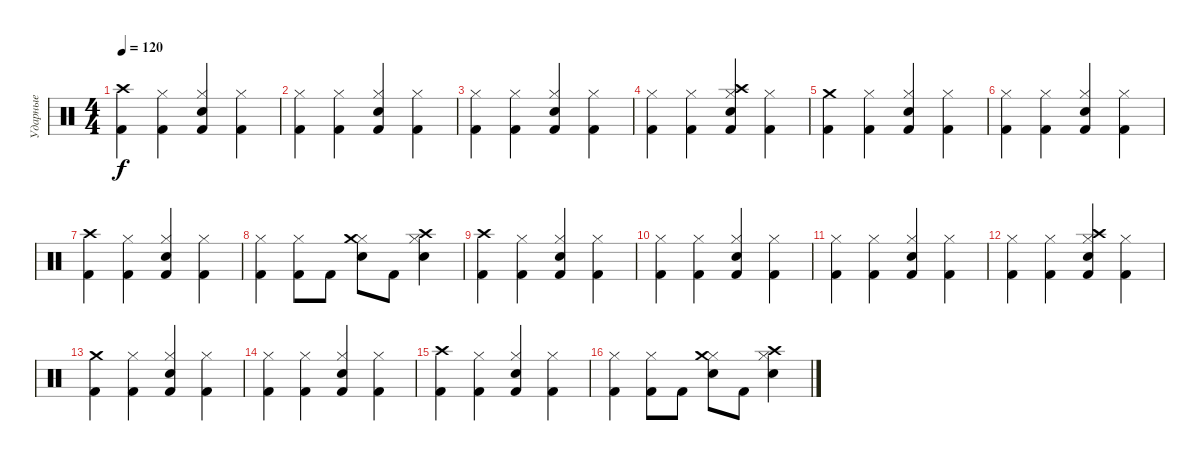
\track ("Ударные" "Ударные") {instrument percussion}
\staff {score}
\articulation defaults
\ts (4 4)
\tempo 120
\clef neutral
\ks c
("Kick (hit) 2" "Crash high (hit)").4{dy f} ("Kick (hit) 2" "Hi-Hat (closed)").4 ("Electric Snare (hit)" "Hi-Hat (closed)" "Kick (hit) 2").4 ("Kick (hit) 2" "Hi-Hat (closed)").4 |
("Kick (hit) 2" "Hi-Hat (closed)").4 ("Kick (hit) 2" "Hi-Hat (closed)").4 ("Electric Snare (hit)" "Hi-Hat (closed)" "Kick (hit) 2").4 ("Kick (hit) 2" "Hi-Hat (closed)").4 |
("Kick (hit) 2" "Hi-Hat (closed)").4 ("Kick (hit) 2" "Hi-Hat (closed)").4 ("Electric Snare (hit)" "Hi-Hat (closed)" "Kick (hit) 2").4 ("Kick (hit) 2" "Hi-Hat (closed)").4 |
("Kick (hit) 2" "Hi-Hat (closed)").4 ("Kick (hit) 2" "Hi-Hat (closed)").4 ("Electric Snare (hit)" "Hi-Hat (closed)" "Crash high (hit)" "Kick (hit) 2").4 ("Kick (hit) 2" "Hi-Hat (closed)").4 |
("Kick (hit) 2" "Crash medium (hit)").4 ("Kick (hit) 2" "Hi-Hat (closed)").4 ("Electric Snare (hit)" "Hi-Hat (closed)" "Kick (hit) 2").4 ("Kick (hit) 2" "Hi-Hat (closed)").4 |
("Kick (hit) 2" "Hi-Hat (closed)").4 ("Kick (hit) 2" "Hi-Hat (closed)").4 ("Electric Snare (hit)" "Hi-Hat (closed)" "Kick (hit) 2").4 ("Kick (hit) 2" "Hi-Hat (closed)").4 |
("Kick (hit) 2" "Crash high (hit)").4 ("Kick (hit) 2" "Hi-Hat (closed)").4 ("Electric Snare (hit)" "Hi-Hat (closed)" "Kick (hit) 2").4 ("Kick (hit) 2" "Hi-Hat (closed)").4 |
("Kick (hit) 2" "Hi-Hat (closed)").4 ("Kick (hit) 2" "Hi-Hat (closed)").8 "Kick (hit) 2".8 ("Electric Snare (hit)" "Hi-Hat (closed)" "Crash medium (hit)").8 "Kick (hit) 2".8 ("Electric Snare (hit)" "Hi-Hat (closed)" "Crash high (hit)").4 |
("Kick (hit) 2" "Crash high (hit)").4 ("Kick (hit) 2" "Hi-Hat (closed)").4 ("Electric Snare (hit)" "Hi-Hat (closed)" "Kick (hit) 2").4 ("Kick (hit) 2" "Hi-Hat (closed)").4 |
("Kick (hit) 2" "Hi-Hat (closed)").4 ("Kick (hit) 2" "Hi-Hat (closed)").4 ("Electric Snare (hit)" "Hi-Hat (closed)" "Kick (hit) 2").4 ("Kick (hit) 2" "Hi-Hat (closed)").4 |
("Kick (hit) 2" "Hi-Hat (closed)").4 ("Kick (hit) 2" "Hi-Hat (closed)").4 ("Electric Snare (hit)" "Hi-Hat (closed)" "Kick (hit) 2").4 ("Kick (hit) 2" "Hi-Hat (closed)").4 |
("Kick (hit) 2" "Hi-Hat (closed)").4 ("Kick (hit) 2" "Hi-Hat (closed)").4 ("Electric Snare (hit)" "Hi-Hat (closed)" "Crash high (hit)" "Kick (hit) 2").4 ("Kick (hit) 2" "Hi-Hat (closed)").4 |
("Kick (hit) 2" "Crash medium (hit)").4 ("Kick (hit) 2" "Hi-Hat (closed)").4 ("Electric Snare (hit)" "Hi-Hat (closed)" "Kick (hit) 2").4 ("Kick (hit) 2" "Hi-Hat (closed)").4 |
("Kick (hit) 2" "Hi-Hat (closed)").4 ("Kick (hit) 2" "Hi-Hat (closed)").4 ("Electric Snare (hit)" "Hi-Hat (closed)" "Kick (hit) 2").4 ("Kick (hit) 2" "Hi-Hat (closed)").4 |
("Kick (hit) 2" "Crash high (hit)").4 ("Kick (hit) 2" "Hi-Hat (closed)").4 ("Electric Snare (hit)" "Hi-Hat (closed)" "Kick (hit) 2").4 ("Kick (hit) 2" "Hi-Hat (closed)").4 |
("Kick (hit) 2" "Hi-Hat (closed)").4 ("Kick (hit) 2" "Hi-Hat (closed)").8 "Kick (hit) 2".8 ("Electric Snare (hit)" "Hi-Hat (closed)" "Crash medium (hit)").8 "Kick (hit) 2".8 ("Electric Snare (hit)" "Hi-Hat (closed)" "Crash high (hit)").4
